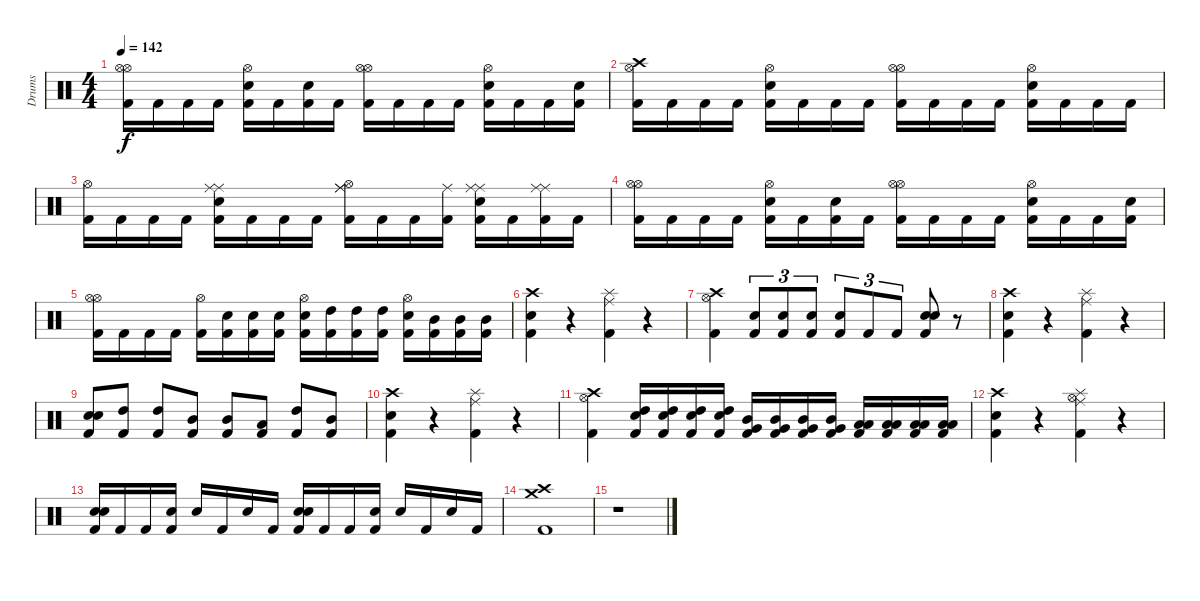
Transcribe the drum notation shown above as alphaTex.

\track ("Drums" "Drums") {instrument percussion}
\staff {score}
\articulation defaults
\ts (4 4)
\tempo 142
\clef neutral
\ks c
("Hi-Hat (open)" "Hi-Hat (open)" "Kick (hit) 2").16{dy f} "Kick (hit) 2".16 "Kick (hit) 2".16 "Kick (hit) 2".16 ("Hi-Hat (open)" "Electric Snare (hit)" "Kick (hit) 2").16 "Kick (hit) 2".16 ("Electric Snare (hit)" "Kick (hit) 2").16 "Kick (hit) 2".16 ("Hi-Hat (open)" "Hi-Hat (open)" "Kick (hit) 2").16 "Kick (hit) 2".16 "Kick (hit) 2".16 "Kick (hit) 2".16 ("Hi-Hat (open)" "Electric Snare (hit)" "Kick (hit) 2").16 "Kick (hit) 2".16 "Kick (hit) 2".16 ("Electric Snare (hit)" "Kick (hit) 2").16 |
("Crash high (hit)" "Hi-Hat (open)" "Kick (hit) 2").16 "Kick (hit) 2".16 "Kick (hit) 2".16 "Kick (hit) 2".16 ("Hi-Hat (open)" "Electric Snare (hit)" "Kick (hit) 2").16 "Kick (hit) 2".16 "Kick (hit) 2".16 "Kick (hit) 2".16 ("Hi-Hat (open)" "Hi-Hat (open)" "Kick (hit) 2").16 "Kick (hit) 2".16 "Kick (hit) 2".16 "Kick (hit) 2".16 ("Hi-Hat (open)" "Electric Snare (hit)" "Kick (hit) 2").16 "Kick (hit) 2".16 "Kick (hit) 2".16 "Kick (hit) 2".16 |
("Hi-Hat (open)" "Kick (hit) 2").16 "Kick (hit) 2".16 "Kick (hit) 2".16 "Kick (hit) 2".16 ("Ride (middle)" "Ride (middle)" "Electric Snare (hit)" "Kick (hit) 2").16 "Kick (hit) 2".16 "Kick (hit) 2".16 "Kick (hit) 2".16 ("Ride (middle)" "Ride (middle)" "Hi-Hat (open)" "Kick (hit) 2").16 "Kick (hit) 2".16 "Kick (hit) 2".16 ("Ride (middle)" "Kick (hit) 2").16 ("Ride (middle)" "Ride (middle)" "Electric Snare (hit)" "Kick (hit) 2").16 "Kick (hit) 2".16 ("Ride (middle)" "Ride (middle)" "Kick (hit) 2").16 "Kick (hit) 2".16 |
("Hi-Hat (open)" "Hi-Hat (open)" "Kick (hit) 2").16 "Kick (hit) 2".16 "Kick (hit) 2".16 "Kick (hit) 2".16 ("Hi-Hat (open)" "Electric Snare (hit)" "Kick (hit) 2").16 "Kick (hit) 2".16 ("Electric Snare (hit)" "Kick (hit) 2").16 "Kick (hit) 2".16 ("Hi-Hat (open)" "Hi-Hat (open)" "Kick (hit) 2").16 "Kick (hit) 2".16 "Kick (hit) 2".16 "Kick (hit) 2".16 ("Hi-Hat (open)" "Electric Snare (hit)" "Kick (hit) 2").16 "Kick (hit) 2".16 "Kick (hit) 2".16 ("Electric Snare (hit)" "Kick (hit) 2").16 |
("Hi-Hat (open)" "Hi-Hat (open)" "Kick (hit) 2").16 "Kick (hit) 2".16 "Kick (hit) 2".16 "Kick (hit) 2".16 ("Hi-Hat (open)" "Kick (hit) 2").16 ("Electric Snare (hit)" "Kick (hit) 2").16 ("Electric Snare (hit)" "Kick (hit) 2").16 ("Electric Snare (hit)" "Kick (hit) 2").16 ("Hi-Hat (open)" "Electric Snare (hit)" "Kick (hit) 2").16 ("High Tom (hit)" "Kick (hit) 2").16 ("High Tom (hit)" "Kick (hit) 2").16 ("High Tom (hit)" "Kick (hit) 2").16 ("Hi-Hat (open)" "Electric Snare (hit)" "Kick (hit) 2").16 ("Mid Tom (hit)" "Kick (hit) 2").16 ("Mid Tom (hit)" "Kick (hit) 2").16 ("Mid Tom (hit)" "Kick (hit) 2").16 |
("Crash high (hit)" "Electric Snare (hit)" "Kick (hit) 2").4 r.4 ("Splash (hit)" "Ride (middle)" "Kick (hit) 2").4 r.4 |
("Crash high (hit)" "Hi-Hat (open)" "Kick (hit) 2").4 ("Electric Snare (hit)" "Kick (hit) 2").8{tu (3 2)} ("Electric Snare (hit)" "Kick (hit) 2").8{tu (3 2)} ("Electric Snare (hit)" "Kick (hit) 2").8{tu (3 2)} ("Electric Snare (hit)" "Kick (hit) 2").8{tu (3 2)} "Kick (hit) 2".8{tu (3 2)} "Kick (hit) 2".8{tu (3 2)} ("Snare (hit) 2" "Electric Snare (hit)" "Kick (hit) 2").8 r.8 |
("Crash high (hit)" "Electric Snare (hit)" "Kick (hit) 2").4 r.4 ("Splash (hit)" "Ride (middle)" "Kick (hit) 2").4 r.4 |
("Snare (hit) 2" "Electric Snare (hit)" "Kick (hit) 2").8 ("High Tom (hit)" "Kick (hit) 2").8 ("High Tom (hit)" "Kick (hit) 2").8 ("Mid Tom (hit)" "Kick (hit) 2").8 ("Mid Tom (hit)" "Kick (hit) 2").8 ("Low Tom (hit)" "Kick (hit) 2").8 ("High Tom (hit)" "Kick (hit) 2").8 ("Mid Tom (hit)" "Kick (hit) 2").8 |
("Crash high (hit)" "Electric Snare (hit)" "Kick (hit) 2").4 r.4 ("Splash (hit)" "Ride (middle)" "Kick (hit) 2").4 r.4 |
("Crash high (hit)" "Hi-Hat (open)" "Kick (hit) 2").4 ("Electric Snare (hit)" "High Tom (hit)" "Kick (hit) 2").16 ("Electric Snare (hit)" "High Tom (hit)" "Kick (hit) 2").16 ("Electric Snare (hit)" "High Tom (hit)" "Kick (hit) 2").16 ("Electric Snare (hit)" "High Tom (hit)" "Kick (hit) 2").16 ("Very Low Tom (hit)" "Mid Tom (hit)" "Kick (hit) 2").16 ("Very Low Tom (hit)" "Mid Tom (hit)" "Kick (hit) 2").16 ("Very Low Tom (hit)" "Mid Tom (hit)" "Kick (hit) 2").16 ("Very Low Tom (hit)" "Mid Tom (hit)" "Kick (hit) 2").16 ("Low Tom (hit)" "Low Tom (hit)" "Kick (hit) 2").16 ("Low Tom (hit)" "Low Tom (hit)" "Kick (hit) 2").16 ("Low Tom (hit)" "Low Tom (hit)" "Kick (hit) 2").16 ("Low Tom (hit)" "Low Tom (hit)" "Kick (hit) 2").16 |
("Crash high (hit)" "Electric Snare (hit)" "Kick (hit) 2").4 r.4 ("Splash (hit)" "Ride (middle)" "Hi-Hat (open)" "Kick (hit) 2").4 r.4 |
("Snare (hit) 2" "Electric Snare (hit)" "Kick (hit) 2").16 "Kick (hit) 2".16 "Kick (hit) 2".16 ("Snare (hit) 2" "Kick (hit) 2").16 "Snare (hit) 2".16 "Kick (hit) 2".16 "Electric Snare (hit)".16 "Kick (hit) 2".16 ("Snare (hit) 2" "Electric Snare (hit)" "Kick (hit) 2").16 "Kick (hit) 2".16 "Kick (hit) 2".16 ("Snare (hit) 2" "Kick (hit) 2").16 "Snare (hit) 2".16 "Kick (hit) 2".16 "Electric Snare (hit)".16 "Kick (hit) 2".16 |
("Crash medium (hit)" "Crash high (hit)" "Kick (hit) 2").1 |
r.1
